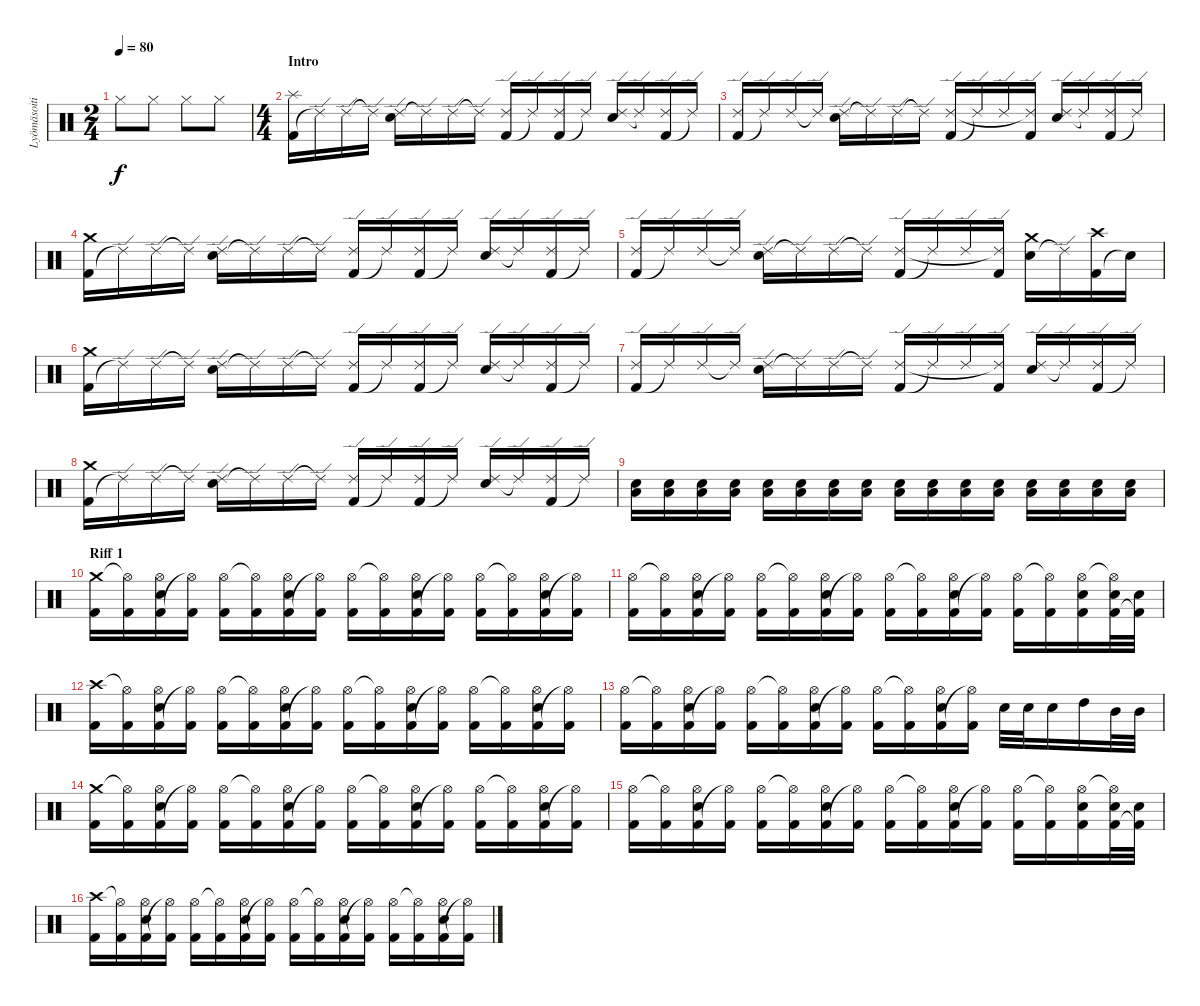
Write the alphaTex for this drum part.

\track ("Lyömäsoitin" "Lyömäsoiti") {instrument percussion}
\staff {score}
\articulation defaults
\ts (2 4)
\tempo 80
\clef neutral
\ks c "Hi-Hat (closed)".8{dy f} "Hi-Hat (closed)".8 "Hi-Hat (closed)".8 "Hi-Hat (closed)".8
|
\ts (4 4)
\section ("" "Intro")
("Kick (hit) 2" "Splash (hit)").16 "Ride (edge) 2"{t}.16 "Ride (edge) 2".16 "Ride (edge) 2"{t}.16 ("Electric Snare (hit)" "Ride (edge) 2").16 "Ride (edge) 2"{t}.16 "Ride (edge) 2".16 "Ride (edge) 2"{t}.16 ("Kick (hit) 2" "Ride (edge) 2").16 "Ride (edge) 2"{t}.16 ("Kick (hit) 2" "Ride (edge) 2").16 "Ride (edge) 2"{t}.16 ("Electric Snare (hit)" "Ride (edge) 2").16 "Ride (edge) 2"{t}.16 ("Kick (hit) 2" "Ride (edge) 2").16 "Ride (edge) 2"{t}.16 |
("Kick (hit) 2" "Ride (edge) 2").16 "Ride (edge) 2"{t}.16 "Ride (edge) 2".16 "Ride (edge) 2"{t}.16 ("Electric Snare (hit)" "Ride (edge) 2").16 "Ride (edge) 2"{t}.16 "Ride (edge) 2".16 "Ride (edge) 2"{t}.16 ("Kick (hit) 2" "Ride (edge) 2").16 "Ride (edge) 2"{t}.16 "Ride (edge) 2".16 ("Kick (hit) 2" "Ride (edge) 2"{t}).16 ("Electric Snare (hit)" "Ride (edge) 2").16 "Ride (edge) 2"{t}.16 ("Kick (hit) 2" "Ride (edge) 2").16 "Ride (edge) 2"{t}.16 |
("Kick (hit) 2" "Crash medium (hit)").16 "Ride (edge) 2"{t}.16 "Ride (edge) 2".16 "Ride (edge) 2"{t}.16 ("Electric Snare (hit)" "Ride (edge) 2").16 "Ride (edge) 2"{t}.16 "Ride (edge) 2".16 "Ride (edge) 2"{t}.16 ("Kick (hit) 2" "Ride (edge) 2").16 "Ride (edge) 2"{t}.16 ("Kick (hit) 2" "Ride (edge) 2").16 "Ride (edge) 2"{t}.16 ("Electric Snare (hit)" "Ride (edge) 2").16 "Ride (edge) 2"{t}.16 ("Kick (hit) 2" "Ride (edge) 2").16 "Ride (edge) 2"{t}.16 |
("Kick (hit) 2" "Ride (edge) 2").16 "Ride (edge) 2"{t}.16 "Ride (edge) 2".16 "Ride (edge) 2"{t}.16 ("Electric Snare (hit)" "Ride (edge) 2").16 "Ride (edge) 2"{t}.16 "Ride (edge) 2".16 "Ride (edge) 2"{t}.16 ("Kick (hit) 2" "Ride (edge) 2").16 "Ride (edge) 2"{t}.16 "Ride (edge) 2".16 ("Kick (hit) 2" "Ride (edge) 2"{t}).16 ("Electric Snare (hit)" "Crash medium (hit)").16 "Ride (edge) 2"{t}.16 ("Kick (hit) 2" "Crash high (hit)").16 "Snare (hit)"{t}.16 |
("Kick (hit) 2" "Crash medium (hit)").16 "Ride (edge) 2"{t}.16 "Ride (edge) 2".16 "Ride (edge) 2"{t}.16 ("Electric Snare (hit)" "Ride (edge) 2").16 "Ride (edge) 2"{t}.16 "Ride (edge) 2".16 "Ride (edge) 2"{t}.16 ("Kick (hit) 2" "Ride (edge) 2").16 "Ride (edge) 2"{t}.16 ("Kick (hit) 2" "Ride (edge) 2").16 "Ride (edge) 2"{t}.16 ("Electric Snare (hit)" "Ride (edge) 2").16 "Ride (edge) 2"{t}.16 ("Kick (hit) 2" "Ride (edge) 2").16 "Ride (edge) 2"{t}.16 |
("Kick (hit) 2" "Ride (edge) 2").16 "Ride (edge) 2"{t}.16 "Ride (edge) 2".16 "Ride (edge) 2"{t}.16 ("Electric Snare (hit)" "Ride (edge) 2").16 "Ride (edge) 2"{t}.16 "Ride (edge) 2".16 "Ride (edge) 2"{t}.16 ("Kick (hit) 2" "Ride (edge) 2").16 "Ride (edge) 2"{t}.16 "Ride (edge) 2".16 ("Kick (hit) 2" "Ride (edge) 2"{t}).16 ("Electric Snare (hit)" "Ride (edge) 2").16 "Ride (edge) 2"{t}.16 ("Kick (hit) 2" "Ride (edge) 2").16 "Ride (edge) 2"{t}.16 |
("Kick (hit) 2" "Crash medium (hit)").16 "Ride (edge) 2"{t}.16 "Ride (edge) 2".16 "Ride (edge) 2"{t}.16 ("Electric Snare (hit)" "Ride (edge) 2").16 "Ride (edge) 2"{t}.16 "Ride (edge) 2".16 "Ride (edge) 2"{t}.16 ("Kick (hit) 2" "Ride (edge) 2").16 "Ride (edge) 2"{t}.16 ("Kick (hit) 2" "Ride (edge) 2").16 "Ride (edge) 2"{t}.16 ("Electric Snare (hit)" "Ride (edge) 2").16 "Ride (edge) 2"{t}.16 ("Kick (hit) 2" "Ride (edge) 2").16 "Ride (edge) 2"{t}.16 |
("Electric Snare (hit)" "Low Tom (hit)").16{volume 7} ("Electric Snare (hit)" "Low Tom (hit)").16{volume 13} ("Electric Snare (hit)" "Low Tom (hit)").16 ("Electric Snare (hit)" "Low Tom (hit)").16 ("Electric Snare (hit)" "Low Tom (hit)").16 ("Electric Snare (hit)" "Low Tom (hit)").16 ("Electric Snare (hit)" "Low Tom (hit)").16 ("Electric Snare (hit)" "Low Tom (hit)").16 ("Electric Snare (hit)" "Low Tom (hit)").16 ("Electric Snare (hit)" "Low Tom (hit)").16 ("Electric Snare (hit)" "Low Tom (hit)").16 ("Electric Snare (hit)" "Low Tom (hit)").16 ("Electric Snare (hit)" "Low Tom (hit)").16 ("Electric Snare (hit)" "Low Tom (hit)").16 ("Electric Snare (hit)" "Low Tom (hit)").16 ("Electric Snare (hit)" "Low Tom (hit)").16 |
\section ("" "Riff 1")
("Kick (hit) 2" "Crash medium (hit)").16 ("Kick (hit) 2" "Hi-Hat (open)"{t}).16 ("Electric Snare (hit)" "Kick (hit) 2" "Hi-Hat (open)").16 ("Kick (hit) 2" "Hi-Hat (open)"{t}).16 ("Kick (hit) 2" "Hi-Hat (open)").16 ("Kick (hit) 2" "Hi-Hat (open)"{t}).16 ("Electric Snare (hit)" "Kick (hit) 2" "Hi-Hat (open)").16 ("Kick (hit) 2" "Hi-Hat (open)"{t}).16 ("Kick (hit) 2" "Hi-Hat (open)").16 ("Kick (hit) 2" "Hi-Hat (open)"{t}).16 ("Electric Snare (hit)" "Kick (hit) 2" "Hi-Hat (open)").16 ("Kick (hit) 2" "Hi-Hat (open)"{t}).16 ("Kick (hit) 2" "Hi-Hat (open)").16 ("Kick (hit) 2" "Hi-Hat (open)"{t}).16 ("Electric Snare (hit)" "Kick (hit) 2" "Hi-Hat (open)").16 ("Kick (hit) 2" "Hi-Hat (open)"{t}).16 |
("Kick (hit) 2" "Hi-Hat (open)").16 ("Kick (hit) 2" "Hi-Hat (open)"{t}).16 ("Electric Snare (hit)" "Kick (hit) 2" "Hi-Hat (open)").16 ("Kick (hit) 2" "Hi-Hat (open)"{t}).16 ("Kick (hit) 2" "Hi-Hat (open)").16 ("Kick (hit) 2" "Hi-Hat (open)"{t}).16 ("Electric Snare (hit)" "Kick (hit) 2" "Hi-Hat (open)").16 ("Kick (hit) 2" "Hi-Hat (open)"{t}).16 ("Kick (hit) 2" "Hi-Hat (open)").16 ("Kick (hit) 2" "Hi-Hat (open)"{t}).16 ("Electric Snare (hit)" "Kick (hit) 2" "Hi-Hat (open)").16 ("Kick (hit) 2" "Hi-Hat (open)"{t}).16 ("Kick (hit) 2" "Hi-Hat (open)").16 ("Kick (hit) 2" "Hi-Hat (open)"{t}).16 ("Electric Snare (hit)" "Kick (hit) 2" "Hi-Hat (open)").16 ("Electric Snare (hit)" "Kick (hit) 2" "Hi-Hat (open)"{t}).32 ("Electric Snare (hit)" "Kick (hit) 2"{t}).32 |
("Kick (hit) 2" "Crash high (hit)").16 ("Kick (hit) 2" "Hi-Hat (open)"{t}).16 ("Electric Snare (hit)" "Kick (hit) 2" "Hi-Hat (open)").16 ("Kick (hit) 2" "Hi-Hat (open)"{t}).16 ("Kick (hit) 2" "Hi-Hat (open)").16 ("Kick (hit) 2" "Hi-Hat (open)"{t}).16 ("Electric Snare (hit)" "Kick (hit) 2" "Hi-Hat (open)").16 ("Kick (hit) 2" "Hi-Hat (open)"{t}).16 ("Kick (hit) 2" "Hi-Hat (open)").16 ("Kick (hit) 2" "Hi-Hat (open)"{t}).16 ("Electric Snare (hit)" "Kick (hit) 2" "Hi-Hat (open)").16 ("Kick (hit) 2" "Hi-Hat (open)"{t}).16 ("Kick (hit) 2" "Hi-Hat (open)").16 ("Kick (hit) 2" "Hi-Hat (open)"{t}).16 ("Electric Snare (hit)" "Kick (hit) 2" "Hi-Hat (open)").16 ("Kick (hit) 2" "Hi-Hat (open)"{t}).16 |
("Kick (hit) 2" "Hi-Hat (open)").16 ("Kick (hit) 2" "Hi-Hat (open)"{t}).16 ("Electric Snare (hit)" "Kick (hit) 2" "Hi-Hat (open)").16 ("Kick (hit) 2" "Hi-Hat (open)"{t}).16 ("Kick (hit) 2" "Hi-Hat (open)").16 ("Kick (hit) 2" "Hi-Hat (open)"{t}).16 ("Electric Snare (hit)" "Kick (hit) 2" "Hi-Hat (open)").16 ("Kick (hit) 2" "Hi-Hat (open)"{t}).16 ("Kick (hit) 2" "Hi-Hat (open)").16 ("Kick (hit) 2" "Hi-Hat (open)"{t}).16 ("Electric Snare (hit)" "Kick (hit) 2" "Hi-Hat (open)").16 ("Kick (hit) 2" "Hi-Hat (open)"{t}).16 "Electric Snare (hit)".32 "Electric Snare (hit)".32 "Electric Snare (hit)".16 "High Tom (hit)".16 "Mid Tom (hit)".32 "Mid Tom (hit)".32 |
("Kick (hit) 2" "Crash medium (hit)").16 ("Kick (hit) 2" "Hi-Hat (open)"{t}).16 ("Electric Snare (hit)" "Kick (hit) 2" "Hi-Hat (open)").16 ("Kick (hit) 2" "Hi-Hat (open)"{t}).16 ("Kick (hit) 2" "Hi-Hat (open)").16 ("Kick (hit) 2" "Hi-Hat (open)"{t}).16 ("Electric Snare (hit)" "Kick (hit) 2" "Hi-Hat (open)").16 ("Kick (hit) 2" "Hi-Hat (open)"{t}).16 ("Kick (hit) 2" "Hi-Hat (open)").16 ("Kick (hit) 2" "Hi-Hat (open)"{t}).16 ("Electric Snare (hit)" "Kick (hit) 2" "Hi-Hat (open)").16 ("Kick (hit) 2" "Hi-Hat (open)"{t}).16 ("Kick (hit) 2" "Hi-Hat (open)").16 ("Kick (hit) 2" "Hi-Hat (open)"{t}).16 ("Electric Snare (hit)" "Kick (hit) 2" "Hi-Hat (open)").16 ("Kick (hit) 2" "Hi-Hat (open)"{t}).16 |
("Kick (hit) 2" "Hi-Hat (open)").16 ("Kick (hit) 2" "Hi-Hat (open)"{t}).16 ("Electric Snare (hit)" "Kick (hit) 2" "Hi-Hat (open)").16 ("Kick (hit) 2" "Hi-Hat (open)"{t}).16 ("Kick (hit) 2" "Hi-Hat (open)").16 ("Kick (hit) 2" "Hi-Hat (open)"{t}).16 ("Electric Snare (hit)" "Kick (hit) 2" "Hi-Hat (open)").16 ("Kick (hit) 2" "Hi-Hat (open)"{t}).16 ("Kick (hit) 2" "Hi-Hat (open)").16 ("Kick (hit) 2" "Hi-Hat (open)"{t}).16 ("Electric Snare (hit)" "Kick (hit) 2" "Hi-Hat (open)").16 ("Kick (hit) 2" "Hi-Hat (open)"{t}).16 ("Kick (hit) 2" "Hi-Hat (open)").16 ("Kick (hit) 2" "Hi-Hat (open)"{t}).16 ("Electric Snare (hit)" "Kick (hit) 2" "Hi-Hat (open)").16 ("Electric Snare (hit)" "Kick (hit) 2" "Hi-Hat (open)"{t}).32 ("Electric Snare (hit)" "Kick (hit) 2"{t}).32 |
("Kick (hit) 2" "Crash high (hit)").16 ("Kick (hit) 2" "Hi-Hat (open)"{t}).16 ("Electric Snare (hit)" "Kick (hit) 2" "Hi-Hat (open)").16 ("Kick (hit) 2" "Hi-Hat (open)"{t}).16 ("Kick (hit) 2" "Hi-Hat (open)").16 ("Kick (hit) 2" "Hi-Hat (open)"{t}).16 ("Electric Snare (hit)" "Kick (hit) 2" "Hi-Hat (open)").16 ("Kick (hit) 2" "Hi-Hat (open)"{t}).16 ("Kick (hit) 2" "Hi-Hat (open)").16 ("Kick (hit) 2" "Hi-Hat (open)"{t}).16 ("Electric Snare (hit)" "Kick (hit) 2" "Hi-Hat (open)").16 ("Kick (hit) 2" "Hi-Hat (open)"{t}).16 ("Kick (hit) 2" "Hi-Hat (open)").16 ("Kick (hit) 2" "Hi-Hat (open)"{t}).16 ("Electric Snare (hit)" "Kick (hit) 2" "Hi-Hat (open)").16 ("Kick (hit) 2" "Hi-Hat (open)"{t}).16
